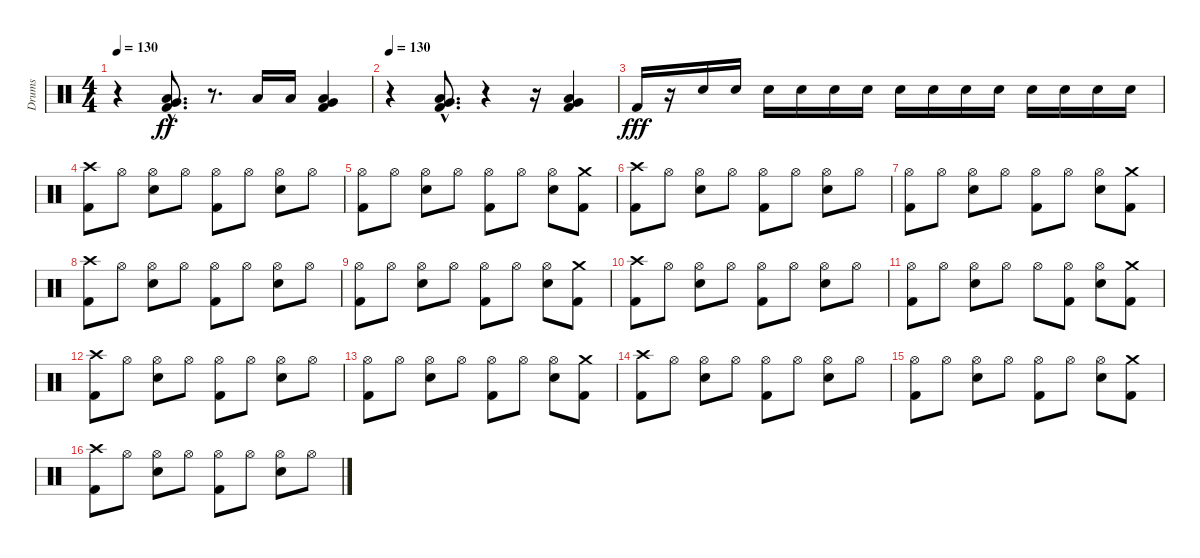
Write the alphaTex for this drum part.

\track ("Drums" "Drums") {instrument percussion}
\staff {score}
\articulation defaults
\ts (4 4)
\tempo 130
\clef neutral
\ks c
r.4{dy ff} ("Low Tom (hit)"{hac} "Very Low Tom (hit)"{hac} "Kick (hit) 2"{hac}).8{d} r.8{d} "Low Tom (hit)".16 "Low Tom (hit)".16 ("Low Tom (hit)" "Very Low Tom (hit)" "Kick (hit) 2").4 |
\tempo 130
r.4 ("Low Tom (hit)"{hac} "Very Low Tom (hit)"{hac} "Kick (hit) 2"{hac}).8{d} r.4 r.16 ("Low Tom (hit)" "Very Low Tom (hit)" "Kick (hit) 2").4 |
"Kick (hit) 2".16{dy fff} r.16 "Electric Snare (hit)".16 "Electric Snare (hit)".16 "Electric Snare (hit)".16 "Electric Snare (hit)".16 "Electric Snare (hit)".16 "Electric Snare (hit)".16 "Electric Snare (hit)".16 "Electric Snare (hit)".16 "Electric Snare (hit)".16 "Electric Snare (hit)".16 "Electric Snare (hit)".16 "Electric Snare (hit)".16 "Electric Snare (hit)".16 "Electric Snare (hit)".16 |
("Kick (hit) 2" "Crash high (hit)").8 "Hi-Hat (open)".8 ("Electric Snare (hit)" "Hi-Hat (open)").8 "Hi-Hat (open)".8 ("Kick (hit) 2" "Hi-Hat (open)").8 "Hi-Hat (open)".8 ("Electric Snare (hit)" "Hi-Hat (open)").8 "Hi-Hat (open)".8 |
("Hi-Hat (open)" "Kick (hit) 2").8 "Hi-Hat (open)".8 ("Hi-Hat (open)" "Electric Snare (hit)").8 "Hi-Hat (open)".8 ("Hi-Hat (open)" "Kick (hit) 2").8 "Hi-Hat (open)".8 ("Hi-Hat (open)" "Electric Snare (hit)").8 ("Crash medium (hit)" "Kick (hit) 2").8 |
("Crash high (hit)" "Kick (hit) 2").8 "Hi-Hat (open)".8 ("Hi-Hat (open)" "Electric Snare (hit)").8 "Hi-Hat (open)".8 ("Hi-Hat (open)" "Kick (hit) 2").8 "Hi-Hat (open)".8 ("Hi-Hat (open)" "Electric Snare (hit)").8 "Hi-Hat (open)".8 |
("Hi-Hat (open)" "Kick (hit) 2").8 "Hi-Hat (open)".8 ("Hi-Hat (open)" "Electric Snare (hit)").8 "Hi-Hat (open)".8 ("Hi-Hat (open)" "Kick (hit) 2").8 "Hi-Hat (open)".8 ("Hi-Hat (open)" "Electric Snare (hit)").8 ("Crash medium (hit)" "Kick (hit) 2").8 |
("Kick (hit) 2" "Crash high (hit)").8 "Hi-Hat (open)".8 ("Electric Snare (hit)" "Hi-Hat (open)").8 "Hi-Hat (open)".8 ("Kick (hit) 2" "Hi-Hat (open)").8 "Hi-Hat (open)".8 ("Electric Snare (hit)" "Hi-Hat (open)").8 "Hi-Hat (open)".8 |
("Hi-Hat (open)" "Kick (hit) 2").8 "Hi-Hat (open)".8 ("Hi-Hat (open)" "Electric Snare (hit)").8 "Hi-Hat (open)".8 ("Hi-Hat (open)" "Kick (hit) 2").8 "Hi-Hat (open)".8 ("Hi-Hat (open)" "Electric Snare (hit)").8 ("Crash medium (hit)" "Kick (hit) 2").8 |
("Crash high (hit)" "Kick (hit) 2").8 "Hi-Hat (open)".8 ("Hi-Hat (open)" "Electric Snare (hit)").8 "Hi-Hat (open)".8 ("Hi-Hat (open)" "Kick (hit) 2").8 "Hi-Hat (open)".8 ("Hi-Hat (open)" "Electric Snare (hit)").8 "Hi-Hat (open)".8 |
("Hi-Hat (open)" "Kick (hit) 2").8 "Hi-Hat (open)".8 ("Hi-Hat (open)" "Electric Snare (hit)").8 "Hi-Hat (open)".8 "Hi-Hat (open)".8 ("Kick (hit) 2" "Hi-Hat (open)").8 ("Electric Snare (hit)" "Hi-Hat (open)").8 ("Crash medium (hit)" "Kick (hit) 2").8 |
("Kick (hit) 2" "Crash high (hit)").8 "Hi-Hat (open)".8 ("Electric Snare (hit)" "Hi-Hat (open)").8 "Hi-Hat (open)".8 ("Kick (hit) 2" "Hi-Hat (open)").8 "Hi-Hat (open)".8 ("Electric Snare (hit)" "Hi-Hat (open)").8 "Hi-Hat (open)".8 |
("Hi-Hat (open)" "Kick (hit) 2").8 "Hi-Hat (open)".8 ("Hi-Hat (open)" "Electric Snare (hit)").8 "Hi-Hat (open)".8 ("Hi-Hat (open)" "Kick (hit) 2").8 "Hi-Hat (open)".8 ("Hi-Hat (open)" "Electric Snare (hit)").8 ("Crash medium (hit)" "Kick (hit) 2").8 |
("Crash high (hit)" "Kick (hit) 2").8 "Hi-Hat (open)".8 ("Hi-Hat (open)" "Electric Snare (hit)").8 "Hi-Hat (open)".8 ("Hi-Hat (open)" "Kick (hit) 2").8 "Hi-Hat (open)".8 ("Hi-Hat (open)" "Electric Snare (hit)").8 "Hi-Hat (open)".8 |
("Hi-Hat (open)" "Kick (hit) 2").8 "Hi-Hat (open)".8 ("Hi-Hat (open)" "Electric Snare (hit)").8 "Hi-Hat (open)".8 ("Hi-Hat (open)" "Kick (hit) 2").8 "Hi-Hat (open)".8 ("Hi-Hat (open)" "Electric Snare (hit)").8 ("Crash medium (hit)" "Kick (hit) 2").8 |
("Kick (hit) 2" "Crash high (hit)").8 "Hi-Hat (open)".8 ("Electric Snare (hit)" "Hi-Hat (open)").8 "Hi-Hat (open)".8 ("Kick (hit) 2" "Hi-Hat (open)").8 "Hi-Hat (open)".8 ("Electric Snare (hit)" "Hi-Hat (open)").8 "Hi-Hat (open)".8
